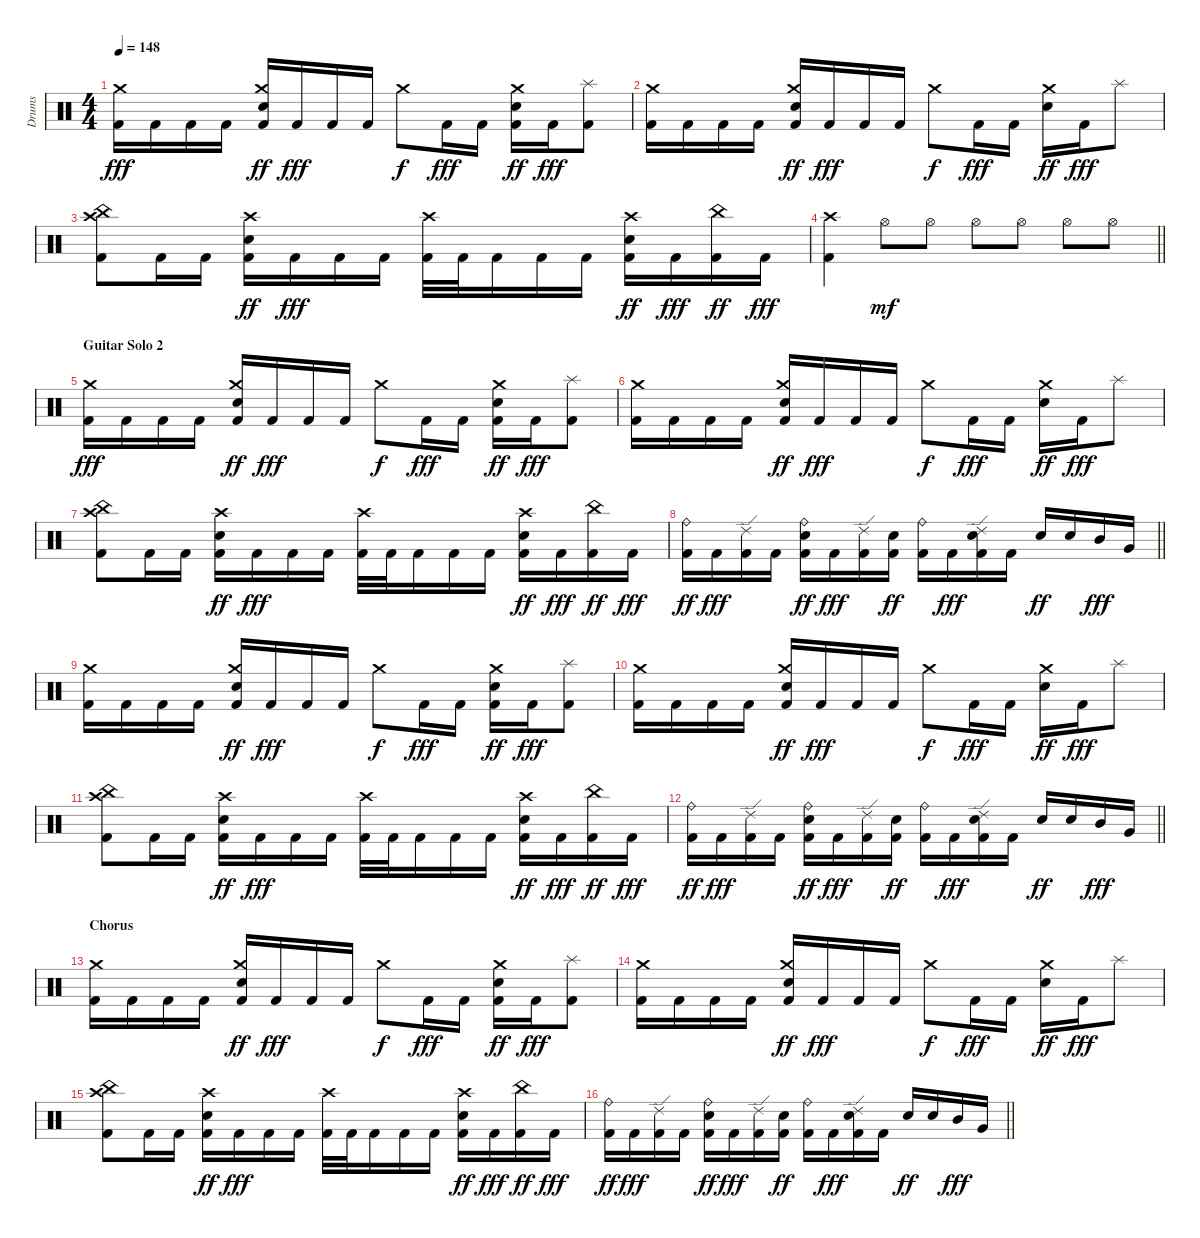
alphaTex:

\track ("Drums" "Drums") {instrument percussion}
\staff {score}
\articulation defaults
\ts (4 4)
\tempo 148
\clef neutral
\ks c
("Kick (hit) 2" "Crash medium (hit)").16{dy fff} "Kick (hit) 2".16 "Kick (hit) 2".16 "Kick (hit) 2".16 ("Kick (hit) 2" "Snare (hit) 2" "Crash medium (hit)").16{dy ff} "Kick (hit) 2".16{dy fff} "Kick (hit) 2".16 "Kick (hit) 2".16 "Crash medium (hit)".8{dy f} "Kick (hit) 2".16{dy fff} "Kick (hit) 2".16 ("Kick (hit) 2" "Snare (hit) 2" "Crash medium (hit)").16{dy ff} "Kick (hit) 2".16{dy fff} ("Kick (hit) 2" "Splash (hit)").8 |
("Kick (hit) 2" "Crash medium (hit)").16 "Kick (hit) 2".16 "Kick (hit) 2".16 "Kick (hit) 2".16 ("Kick (hit) 2" "Snare (hit) 2" "Crash medium (hit)").16{dy ff} "Kick (hit) 2".16{dy fff} "Kick (hit) 2".16 "Kick (hit) 2".16 "Crash medium (hit)".8{dy f} "Kick (hit) 2".16{dy fff} "Kick (hit) 2".16 ("Snare (hit) 2" "Crash medium (hit)").16{dy ff} "Kick (hit) 2".16{dy fff} "Splash (hit)".8 |
("Kick (hit) 2" "China (hit)" "Crash high (hit)").8 "Kick (hit) 2".16 "Kick (hit) 2".16 ("Kick (hit) 2" "Snare (hit) 2" "Crash high (hit)").16{dy ff} "Kick (hit) 2".16{dy fff} "Kick (hit) 2".16 "Kick (hit) 2".16 ("Kick (hit) 2" "Crash high (hit)").32 "Kick (hit) 2".32 "Kick (hit) 2".16 "Kick (hit) 2".16 "Kick (hit) 2".16 ("Kick (hit) 2" "Snare (hit) 2" "Crash high (hit)").16{dy ff} "Kick (hit) 2".16{dy fff} ("Kick (hit) 2" "China (hit)").16{dy ff} "Kick (hit) 2".16{dy fff} |
\barLineRight lightlight
("Kick (hit) 2" "Crash high (hit)").4 "Hi-Hat (open)".8{dy mf} "Hi-Hat (open)".8 "Hi-Hat (open)".8 "Hi-Hat (open)".8 "Hi-Hat (open)".8 "Hi-Hat (open)".8 |
\section ("" "Guitar Solo 2")
("Kick (hit) 2" "Crash medium (hit)").16{dy fff} "Kick (hit) 2".16 "Kick (hit) 2".16 "Kick (hit) 2".16 ("Kick (hit) 2" "Snare (hit) 2" "Crash medium (hit)").16{dy ff} "Kick (hit) 2".16{dy fff} "Kick (hit) 2".16 "Kick (hit) 2".16 "Crash medium (hit)".8{dy f} "Kick (hit) 2".16{dy fff} "Kick (hit) 2".16 ("Kick (hit) 2" "Snare (hit) 2" "Crash medium (hit)").16{dy ff} "Kick (hit) 2".16{dy fff} ("Kick (hit) 2" "Splash (hit)").8 |
("Kick (hit) 2" "Crash medium (hit)").16 "Kick (hit) 2".16 "Kick (hit) 2".16 "Kick (hit) 2".16 ("Kick (hit) 2" "Snare (hit) 2" "Crash medium (hit)").16{dy ff} "Kick (hit) 2".16{dy fff} "Kick (hit) 2".16 "Kick (hit) 2".16 "Crash medium (hit)".8{dy f} "Kick (hit) 2".16{dy fff} "Kick (hit) 2".16 ("Snare (hit) 2" "Crash medium (hit)").16{dy ff} "Kick (hit) 2".16{dy fff} "Splash (hit)".8 |
("Kick (hit) 2" "China (hit)" "Crash high (hit)").8 "Kick (hit) 2".16 "Kick (hit) 2".16 ("Kick (hit) 2" "Snare (hit) 2" "Crash high (hit)").16{dy ff} "Kick (hit) 2".16{dy fff} "Kick (hit) 2".16 "Kick (hit) 2".16 ("Kick (hit) 2" "Crash high (hit)").32 "Kick (hit) 2".32 "Kick (hit) 2".16 "Kick (hit) 2".16 "Kick (hit) 2".16 ("Kick (hit) 2" "Snare (hit) 2" "Crash high (hit)").16{dy ff} "Kick (hit) 2".16{dy fff} ("Kick (hit) 2" "China (hit)").16{dy ff} "Kick (hit) 2".16{dy fff} |
\barLineRight lightlight
("Kick (hit) 2" "Ride (bell)").16{dy ff} "Kick (hit) 2".16{dy fff} ("Kick (hit) 2" "Ride (edge) 2").16 "Kick (hit) 2".16 ("Kick (hit) 2" "Snare (hit) 2" "Ride (bell)").16{dy ff} "Kick (hit) 2".16{dy fff} ("Kick (hit) 2" "Ride (edge) 2").16 ("Kick (hit) 2" "Snare (hit) 2").16{dy ff} ("Kick (hit) 2" "Ride (bell)").16 "Kick (hit) 2".16{dy fff} ("Kick (hit) 2" "Snare (hit) 2" "Ride (edge) 2").16 "Kick (hit) 2".16 "Snare (hit) 2".16{dy ff} "Snare (hit) 2".16 "Mid Tom (hit)".16{dy fff} "Very Low Tom (hit)".16 |
("Kick (hit) 2" "Crash medium (hit)").16 "Kick (hit) 2".16 "Kick (hit) 2".16 "Kick (hit) 2".16 ("Kick (hit) 2" "Snare (hit) 2" "Crash medium (hit)").16{dy ff} "Kick (hit) 2".16{dy fff} "Kick (hit) 2".16 "Kick (hit) 2".16 "Crash medium (hit)".8{dy f} "Kick (hit) 2".16{dy fff} "Kick (hit) 2".16 ("Kick (hit) 2" "Snare (hit) 2" "Crash medium (hit)").16{dy ff} "Kick (hit) 2".16{dy fff} ("Kick (hit) 2" "Splash (hit)").8 |
("Kick (hit) 2" "Crash medium (hit)").16 "Kick (hit) 2".16 "Kick (hit) 2".16 "Kick (hit) 2".16 ("Kick (hit) 2" "Snare (hit) 2" "Crash medium (hit)").16{dy ff} "Kick (hit) 2".16{dy fff} "Kick (hit) 2".16 "Kick (hit) 2".16 "Crash medium (hit)".8{dy f} "Kick (hit) 2".16{dy fff} "Kick (hit) 2".16 ("Snare (hit) 2" "Crash medium (hit)").16{dy ff} "Kick (hit) 2".16{dy fff} "Splash (hit)".8 |
("Kick (hit) 2" "China (hit)" "Crash high (hit)").8 "Kick (hit) 2".16 "Kick (hit) 2".16 ("Kick (hit) 2" "Snare (hit) 2" "Crash high (hit)").16{dy ff} "Kick (hit) 2".16{dy fff} "Kick (hit) 2".16 "Kick (hit) 2".16 ("Kick (hit) 2" "Crash high (hit)").32 "Kick (hit) 2".32 "Kick (hit) 2".16 "Kick (hit) 2".16 "Kick (hit) 2".16 ("Kick (hit) 2" "Snare (hit) 2" "Crash high (hit)").16{dy ff} "Kick (hit) 2".16{dy fff} ("Kick (hit) 2" "China (hit)").16{dy ff} "Kick (hit) 2".16{dy fff} |
\barLineRight lightlight
("Kick (hit) 2" "Ride (bell)").16{dy ff} "Kick (hit) 2".16{dy fff} ("Kick (hit) 2" "Ride (edge) 2").16 "Kick (hit) 2".16 ("Kick (hit) 2" "Snare (hit) 2" "Ride (bell)").16{dy ff} "Kick (hit) 2".16{dy fff} ("Kick (hit) 2" "Ride (edge) 2").16 ("Kick (hit) 2" "Snare (hit) 2").16{dy ff} ("Kick (hit) 2" "Ride (bell)").16 "Kick (hit) 2".16{dy fff} ("Kick (hit) 2" "Snare (hit) 2" "Ride (edge) 2").16 "Kick (hit) 2".16 "Snare (hit) 2".16{dy ff} "Snare (hit) 2".16 "Mid Tom (hit)".16{dy fff} "Very Low Tom (hit)".16 |
\section ("" "Chorus")
("Kick (hit) 2" "Crash medium (hit)").16 "Kick (hit) 2".16 "Kick (hit) 2".16 "Kick (hit) 2".16 ("Kick (hit) 2" "Snare (hit) 2" "Crash medium (hit)").16{dy ff} "Kick (hit) 2".16{dy fff} "Kick (hit) 2".16 "Kick (hit) 2".16 "Crash medium (hit)".8{dy f} "Kick (hit) 2".16{dy fff} "Kick (hit) 2".16 ("Kick (hit) 2" "Snare (hit) 2" "Crash medium (hit)").16{dy ff} "Kick (hit) 2".16{dy fff} ("Kick (hit) 2" "Splash (hit)").8 |
("Kick (hit) 2" "Crash medium (hit)").16 "Kick (hit) 2".16 "Kick (hit) 2".16 "Kick (hit) 2".16 ("Kick (hit) 2" "Snare (hit) 2" "Crash medium (hit)").16{dy ff} "Kick (hit) 2".16{dy fff} "Kick (hit) 2".16 "Kick (hit) 2".16 "Crash medium (hit)".8{dy f} "Kick (hit) 2".16{dy fff} "Kick (hit) 2".16 ("Snare (hit) 2" "Crash medium (hit)").16{dy ff} "Kick (hit) 2".16{dy fff} "Splash (hit)".8 |
("Kick (hit) 2" "China (hit)" "Crash high (hit)").8 "Kick (hit) 2".16 "Kick (hit) 2".16 ("Kick (hit) 2" "Snare (hit) 2" "Crash high (hit)").16{dy ff} "Kick (hit) 2".16{dy fff} "Kick (hit) 2".16 "Kick (hit) 2".16 ("Kick (hit) 2" "Crash high (hit)").32 "Kick (hit) 2".32 "Kick (hit) 2".16 "Kick (hit) 2".16 "Kick (hit) 2".16 ("Kick (hit) 2" "Snare (hit) 2" "Crash high (hit)").16{dy ff} "Kick (hit) 2".16{dy fff} ("Kick (hit) 2" "China (hit)").16{dy ff} "Kick (hit) 2".16{dy fff} |
\barLineRight lightlight
("Kick (hit) 2" "Ride (bell)").16{dy ff} "Kick (hit) 2".16{dy fff} ("Kick (hit) 2" "Ride (edge) 2").16 "Kick (hit) 2".16 ("Kick (hit) 2" "Snare (hit) 2" "Ride (bell)").16{dy ff} "Kick (hit) 2".16{dy fff} ("Kick (hit) 2" "Ride (edge) 2").16 ("Kick (hit) 2" "Snare (hit) 2").16{dy ff} ("Kick (hit) 2" "Ride (bell)").16 "Kick (hit) 2".16{dy fff} ("Kick (hit) 2" "Snare (hit) 2" "Ride (edge) 2").16 "Kick (hit) 2".16 "Snare (hit) 2".16{dy ff} "Snare (hit) 2".16 "Mid Tom (hit)".16{dy fff} "Very Low Tom (hit)".16
